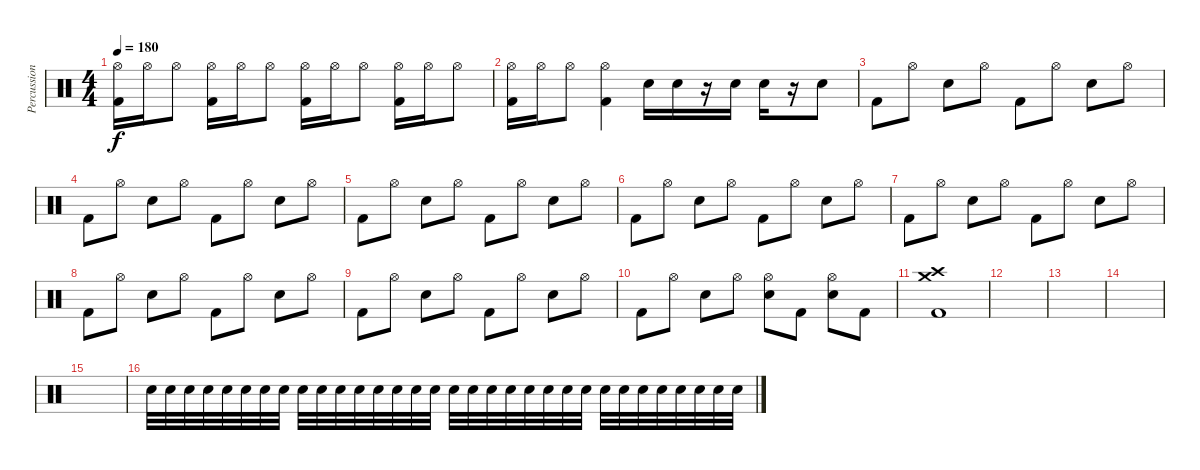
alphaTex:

\track ("Percussion" "Percussion") {instrument percussion}
\staff {score}
\articulation defaults
\ts (4 4)
\tempo 180
\clef neutral
\ks c
("Hi-Hat (open)" "Kick (hit) 2").16{dy f} "Hi-Hat (open)".16 "Hi-Hat (open)".8 ("Hi-Hat (open)" "Kick (hit) 2").16 "Hi-Hat (open)".16 "Hi-Hat (open)".8 ("Hi-Hat (open)" "Kick (hit) 2").16 "Hi-Hat (open)".16 "Hi-Hat (open)".8 ("Hi-Hat (open)" "Kick (hit) 2").16 "Hi-Hat (open)".16 "Hi-Hat (open)".8 |
("Hi-Hat (open)" "Kick (hit) 2").16 "Hi-Hat (open)".16 "Hi-Hat (open)".8 ("Hi-Hat (open)" "Kick (hit) 2").4 "Electric Snare (hit)".16 "Electric Snare (hit)".16 r.16 "Electric Snare (hit)".16 "Electric Snare (hit)".16 r.16 "Electric Snare (hit)".8 |
"Kick (hit) 2".8 "Hi-Hat (open)".8 "Electric Snare (hit)".8 "Hi-Hat (open)".8 "Kick (hit) 2".8 "Hi-Hat (open)".8 "Electric Snare (hit)".8 "Hi-Hat (open)".8 |
"Kick (hit) 2".8 "Hi-Hat (open)".8 "Electric Snare (hit)".8 "Hi-Hat (open)".8 "Kick (hit) 2".8 "Hi-Hat (open)".8 "Electric Snare (hit)".8 "Hi-Hat (open)".8 |
"Kick (hit) 2".8 "Hi-Hat (open)".8 "Electric Snare (hit)".8 "Hi-Hat (open)".8 "Kick (hit) 2".8 "Hi-Hat (open)".8 "Electric Snare (hit)".8 "Hi-Hat (open)".8 |
"Kick (hit) 2".8 "Hi-Hat (open)".8 "Electric Snare (hit)".8 "Hi-Hat (open)".8 "Kick (hit) 2".8 "Hi-Hat (open)".8 "Electric Snare (hit)".8 "Hi-Hat (open)".8 |
"Kick (hit) 2".8 "Hi-Hat (open)".8 "Electric Snare (hit)".8 "Hi-Hat (open)".8 "Kick (hit) 2".8 "Hi-Hat (open)".8 "Electric Snare (hit)".8 "Hi-Hat (open)".8 |
"Kick (hit) 2".8 "Hi-Hat (open)".8 "Electric Snare (hit)".8 "Hi-Hat (open)".8 "Kick (hit) 2".8 "Hi-Hat (open)".8 "Electric Snare (hit)".8 "Hi-Hat (open)".8 |
"Kick (hit) 2".8 "Hi-Hat (open)".8 "Electric Snare (hit)".8 "Hi-Hat (open)".8 "Kick (hit) 2".8 "Hi-Hat (open)".8 "Electric Snare (hit)".8 "Hi-Hat (open)".8 |
"Kick (hit) 2".8 "Hi-Hat (open)".8 "Electric Snare (hit)".8 "Hi-Hat (open)".8 ("Hi-Hat (open)" "Electric Snare (hit)").8 "Kick (hit) 2".8 ("Hi-Hat (open)" "Electric Snare (hit)").8 "Kick (hit) 2".8 |
("Crash high (hit)" "Crash medium (hit)" "Kick (hit) 2").1 |
|
|
|
|
"Electric Snare (hit)".32{volume 11} "Electric Snare (hit)".32 "Electric Snare (hit)".32 "Electric Snare (hit)".32 "Electric Snare (hit)".32 "Electric Snare (hit)".32 "Electric Snare (hit)".32 "Electric Snare (hit)".32 "Electric Snare (hit)".32 "Electric Snare (hit)".32 "Electric Snare (hit)".32 "Electric Snare (hit)".32 "Electric Snare (hit)".32 "Electric Snare (hit)".32 "Electric Snare (hit)".32 "Electric Snare (hit)".32 "Electric Snare (hit)".32 "Electric Snare (hit)".32 "Electric Snare (hit)".32 "Electric Snare (hit)".32 "Electric Snare (hit)".32 "Electric Snare (hit)".32 "Electric Snare (hit)".32 "Electric Snare (hit)".32 "Electric Snare (hit)".32 "Electric Snare (hit)".32 "Electric Snare (hit)".32 "Electric Snare (hit)".32 "Electric Snare (hit)".32 "Electric Snare (hit)".32 "Electric Snare (hit)".32 "Electric Snare (hit)".32
